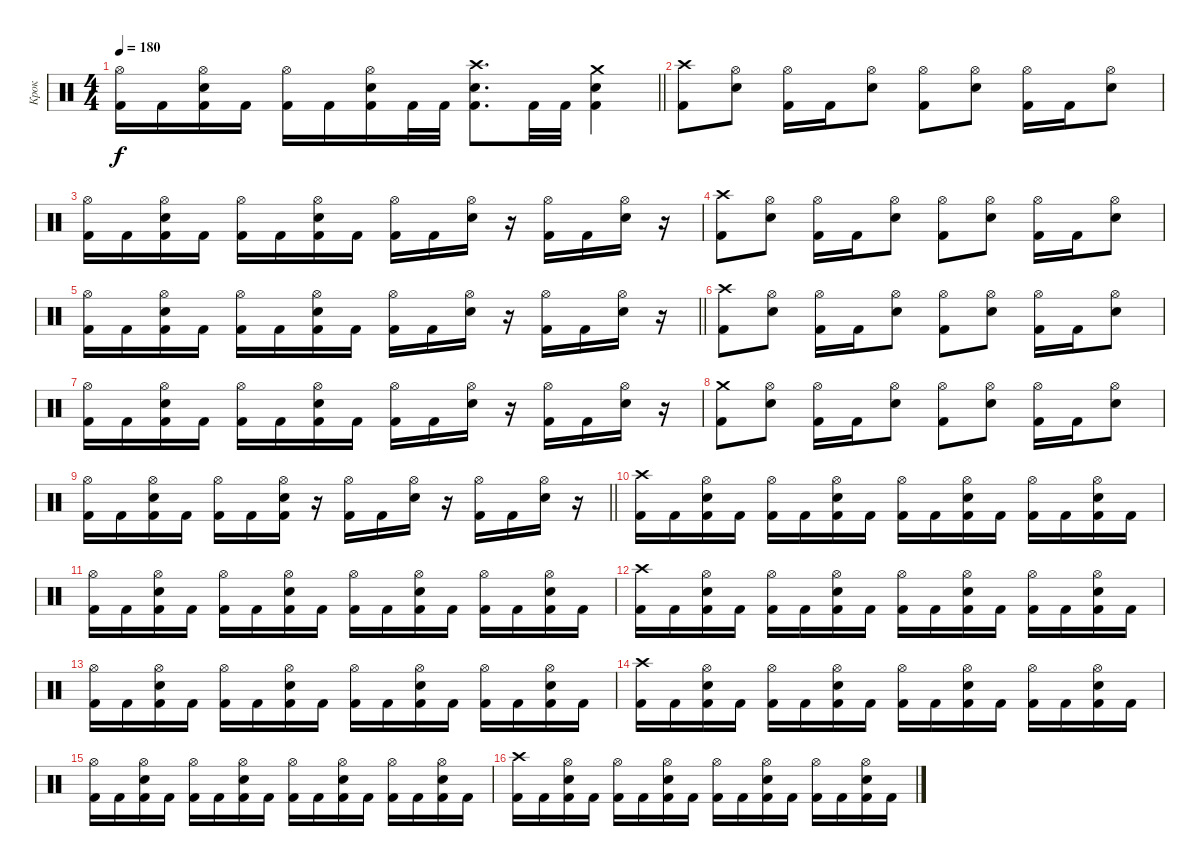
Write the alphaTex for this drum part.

\track ("Крок" "Крок") {instrument percussion}
\staff {score}
\articulation defaults
\ts (4 4)
\tempo 180
\clef neutral
\barLineRight lightlight
\ks c
("Kick (hit) 2" "Hi-Hat (open)").16{dy f} "Kick (hit) 2".16 ("Kick (hit) 2" "Electric Snare (hit)" "Hi-Hat (open)").16 "Kick (hit) 2".16 ("Kick (hit) 2" "Hi-Hat (open)").16 "Kick (hit) 2".16 ("Kick (hit) 2" "Electric Snare (hit)" "Hi-Hat (open)").16 "Kick (hit) 2".32 "Kick (hit) 2".32 ("Electric Snare (hit)" "Kick (hit) 2" "Crash high (hit)").8{d} "Kick (hit) 2".32 "Kick (hit) 2".32 ("Electric Snare (hit)" "Kick (hit) 2" "Crash medium (hit)").4 |
\section ("" "")
("Kick (hit) 2" "Crash high (hit)").8 ("Electric Snare (hit)" "Hi-Hat (open)").8 ("Kick (hit) 2" "Hi-Hat (open)").16 "Kick (hit) 2".16 ("Electric Snare (hit)" "Hi-Hat (open)").8 ("Kick (hit) 2" "Hi-Hat (open)").8 ("Electric Snare (hit)" "Hi-Hat (open)").8 ("Kick (hit) 2" "Hi-Hat (open)").16 "Kick (hit) 2".16 ("Electric Snare (hit)" "Hi-Hat (open)").8 |
("Kick (hit) 2" "Hi-Hat (open)").16 "Kick (hit) 2".16 ("Kick (hit) 2" "Electric Snare (hit)" "Hi-Hat (open)").16 "Kick (hit) 2".16 ("Kick (hit) 2" "Hi-Hat (open)").16 "Kick (hit) 2".16 ("Kick (hit) 2" "Electric Snare (hit)" "Hi-Hat (open)").16 "Kick (hit) 2".16 ("Kick (hit) 2" "Hi-Hat (open)").16 "Kick (hit) 2".16 ("Electric Snare (hit)" "Hi-Hat (open)").16 r.16 ("Kick (hit) 2" "Hi-Hat (open)").16 "Kick (hit) 2".16 ("Electric Snare (hit)" "Hi-Hat (open)").16 r.16 |
("Kick (hit) 2" "Crash high (hit)").8 ("Electric Snare (hit)" "Hi-Hat (open)").8 ("Kick (hit) 2" "Hi-Hat (open)").16 "Kick (hit) 2".16 ("Electric Snare (hit)" "Hi-Hat (open)").8 ("Kick (hit) 2" "Hi-Hat (open)").8 ("Electric Snare (hit)" "Hi-Hat (open)").8 ("Kick (hit) 2" "Hi-Hat (open)").16 "Kick (hit) 2".16 ("Electric Snare (hit)" "Hi-Hat (open)").8 |
\barLineRight lightlight
("Kick (hit) 2" "Hi-Hat (open)").16 "Kick (hit) 2".16 ("Kick (hit) 2" "Electric Snare (hit)" "Hi-Hat (open)").16 "Kick (hit) 2".16 ("Kick (hit) 2" "Hi-Hat (open)").16 "Kick (hit) 2".16 ("Kick (hit) 2" "Electric Snare (hit)" "Hi-Hat (open)").16 "Kick (hit) 2".16 ("Kick (hit) 2" "Hi-Hat (open)").16 "Kick (hit) 2".16 ("Electric Snare (hit)" "Hi-Hat (open)").16 r.16 ("Kick (hit) 2" "Hi-Hat (open)").16 "Kick (hit) 2".16 ("Electric Snare (hit)" "Hi-Hat (open)").16 r.16 |
("Kick (hit) 2" "Crash high (hit)").8 ("Electric Snare (hit)" "Hi-Hat (open)").8 ("Kick (hit) 2" "Hi-Hat (open)").16 "Kick (hit) 2".16 ("Electric Snare (hit)" "Hi-Hat (open)").8 ("Kick (hit) 2" "Hi-Hat (open)").8 ("Electric Snare (hit)" "Hi-Hat (open)").8 ("Kick (hit) 2" "Hi-Hat (open)").16 "Kick (hit) 2".16 ("Electric Snare (hit)" "Hi-Hat (open)").8 |
("Kick (hit) 2" "Hi-Hat (open)").16 "Kick (hit) 2".16 ("Kick (hit) 2" "Electric Snare (hit)" "Hi-Hat (open)").16 "Kick (hit) 2".16 ("Kick (hit) 2" "Hi-Hat (open)").16 "Kick (hit) 2".16 ("Kick (hit) 2" "Electric Snare (hit)" "Hi-Hat (open)").16 "Kick (hit) 2".16 ("Kick (hit) 2" "Hi-Hat (open)").16 "Kick (hit) 2".16 ("Electric Snare (hit)" "Hi-Hat (open)").16 r.16 ("Kick (hit) 2" "Hi-Hat (open)").16 "Kick (hit) 2".16 ("Electric Snare (hit)" "Hi-Hat (open)").16 r.16 |
("Kick (hit) 2" "Crash medium (hit)").8 ("Electric Snare (hit)" "Hi-Hat (open)").8 ("Kick (hit) 2" "Hi-Hat (open)").16 "Kick (hit) 2".16 ("Electric Snare (hit)" "Hi-Hat (open)").8 ("Kick (hit) 2" "Hi-Hat (open)").8 ("Electric Snare (hit)" "Hi-Hat (open)").8 ("Kick (hit) 2" "Hi-Hat (open)").16 "Kick (hit) 2".16 ("Electric Snare (hit)" "Hi-Hat (open)").8 |
\barLineRight lightlight
("Kick (hit) 2" "Hi-Hat (open)").16 "Kick (hit) 2".16 ("Kick (hit) 2" "Electric Snare (hit)" "Hi-Hat (open)").16 "Kick (hit) 2".16 ("Kick (hit) 2" "Hi-Hat (open)").16 "Kick (hit) 2".16 ("Kick (hit) 2" "Electric Snare (hit)" "Hi-Hat (open)").16 r.16 ("Kick (hit) 2" "Hi-Hat (open)").16 "Kick (hit) 2".16 ("Electric Snare (hit)" "Hi-Hat (open)").16 r.16 ("Kick (hit) 2" "Hi-Hat (open)").16 "Kick (hit) 2".16 ("Electric Snare (hit)" "Hi-Hat (open)").16 r.16 |
("Kick (hit) 2" "Crash high (hit)").16 "Kick (hit) 2".16 ("Kick (hit) 2" "Electric Snare (hit)" "Hi-Hat (open)").16 "Kick (hit) 2".16 ("Kick (hit) 2" "Hi-Hat (open)").16 "Kick (hit) 2".16 ("Kick (hit) 2" "Electric Snare (hit)" "Hi-Hat (open)").16 "Kick (hit) 2".16 ("Kick (hit) 2" "Hi-Hat (open)").16 "Kick (hit) 2".16 ("Kick (hit) 2" "Electric Snare (hit)" "Hi-Hat (open)").16 "Kick (hit) 2".16 ("Kick (hit) 2" "Hi-Hat (open)").16 "Kick (hit) 2".16 ("Kick (hit) 2" "Electric Snare (hit)" "Hi-Hat (open)").16 "Kick (hit) 2".16 |
("Kick (hit) 2" "Hi-Hat (open)").16 "Kick (hit) 2".16 ("Kick (hit) 2" "Electric Snare (hit)" "Hi-Hat (open)").16 "Kick (hit) 2".16 ("Kick (hit) 2" "Hi-Hat (open)").16 "Kick (hit) 2".16 ("Kick (hit) 2" "Electric Snare (hit)" "Hi-Hat (open)").16 "Kick (hit) 2".16 ("Kick (hit) 2" "Hi-Hat (open)").16 "Kick (hit) 2".16 ("Kick (hit) 2" "Electric Snare (hit)" "Hi-Hat (open)").16 "Kick (hit) 2".16 ("Kick (hit) 2" "Hi-Hat (open)").16 "Kick (hit) 2".16 ("Kick (hit) 2" "Electric Snare (hit)" "Hi-Hat (open)").16 "Kick (hit) 2".16 |
("Kick (hit) 2" "Crash high (hit)").16 "Kick (hit) 2".16 ("Kick (hit) 2" "Electric Snare (hit)" "Hi-Hat (open)").16 "Kick (hit) 2".16 ("Kick (hit) 2" "Hi-Hat (open)").16 "Kick (hit) 2".16 ("Kick (hit) 2" "Electric Snare (hit)" "Hi-Hat (open)").16 "Kick (hit) 2".16 ("Kick (hit) 2" "Hi-Hat (open)").16 "Kick (hit) 2".16 ("Kick (hit) 2" "Electric Snare (hit)" "Hi-Hat (open)").16 "Kick (hit) 2".16 ("Kick (hit) 2" "Hi-Hat (open)").16 "Kick (hit) 2".16 ("Kick (hit) 2" "Electric Snare (hit)" "Hi-Hat (open)").16 "Kick (hit) 2".16 |
("Kick (hit) 2" "Hi-Hat (open)").16 "Kick (hit) 2".16 ("Kick (hit) 2" "Electric Snare (hit)" "Hi-Hat (open)").16 "Kick (hit) 2".16 ("Kick (hit) 2" "Hi-Hat (open)").16 "Kick (hit) 2".16 ("Kick (hit) 2" "Electric Snare (hit)" "Hi-Hat (open)").16 "Kick (hit) 2".16 ("Kick (hit) 2" "Hi-Hat (open)").16 "Kick (hit) 2".16 ("Kick (hit) 2" "Electric Snare (hit)" "Hi-Hat (open)").16 "Kick (hit) 2".16 ("Kick (hit) 2" "Hi-Hat (open)").16 "Kick (hit) 2".16 ("Kick (hit) 2" "Electric Snare (hit)" "Hi-Hat (open)").16 "Kick (hit) 2".16 |
("Kick (hit) 2" "Crash high (hit)").16 "Kick (hit) 2".16 ("Kick (hit) 2" "Electric Snare (hit)" "Hi-Hat (open)").16 "Kick (hit) 2".16 ("Kick (hit) 2" "Hi-Hat (open)").16 "Kick (hit) 2".16 ("Kick (hit) 2" "Electric Snare (hit)" "Hi-Hat (open)").16 "Kick (hit) 2".16 ("Kick (hit) 2" "Hi-Hat (open)").16 "Kick (hit) 2".16 ("Kick (hit) 2" "Electric Snare (hit)" "Hi-Hat (open)").16 "Kick (hit) 2".16 ("Kick (hit) 2" "Hi-Hat (open)").16 "Kick (hit) 2".16 ("Kick (hit) 2" "Electric Snare (hit)" "Hi-Hat (open)").16 "Kick (hit) 2".16 |
("Kick (hit) 2" "Hi-Hat (open)").16 "Kick (hit) 2".16 ("Kick (hit) 2" "Electric Snare (hit)" "Hi-Hat (open)").16 "Kick (hit) 2".16 ("Kick (hit) 2" "Hi-Hat (open)").16 "Kick (hit) 2".16 ("Kick (hit) 2" "Electric Snare (hit)" "Hi-Hat (open)").16 "Kick (hit) 2".16 ("Kick (hit) 2" "Hi-Hat (open)").16 "Kick (hit) 2".16 ("Kick (hit) 2" "Electric Snare (hit)" "Hi-Hat (open)").16 "Kick (hit) 2".16 ("Kick (hit) 2" "Hi-Hat (open)").16 "Kick (hit) 2".16 ("Kick (hit) 2" "Electric Snare (hit)" "Hi-Hat (open)").16 "Kick (hit) 2".16 |
("Kick (hit) 2" "Crash high (hit)").16 "Kick (hit) 2".16 ("Kick (hit) 2" "Electric Snare (hit)" "Hi-Hat (open)").16 "Kick (hit) 2".16 ("Kick (hit) 2" "Hi-Hat (open)").16 "Kick (hit) 2".16 ("Kick (hit) 2" "Electric Snare (hit)" "Hi-Hat (open)").16 "Kick (hit) 2".16 ("Kick (hit) 2" "Hi-Hat (open)").16 "Kick (hit) 2".16 ("Kick (hit) 2" "Electric Snare (hit)" "Hi-Hat (open)").16 "Kick (hit) 2".16 ("Kick (hit) 2" "Hi-Hat (open)").16 "Kick (hit) 2".16 ("Kick (hit) 2" "Electric Snare (hit)" "Hi-Hat (open)").16 "Kick (hit) 2".16
